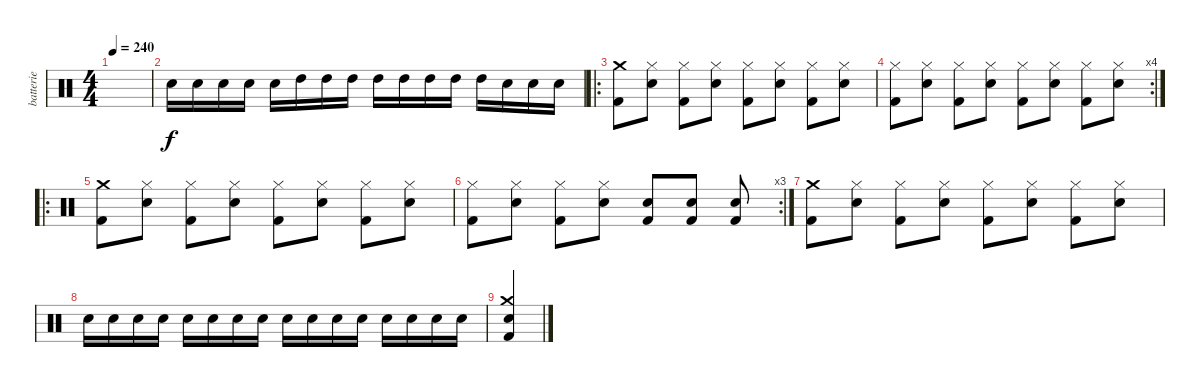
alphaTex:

\track ("batterie" "batterie") {instrument percussion}
\staff {score}
\articulation defaults
\ts (4 4)
\tempo 240
\clef neutral
\ks c
|
"Snare (hit) 2".16 "Snare (hit) 2".16 "Snare (hit) 2".16 "Snare (hit) 2".16 "Snare (hit) 2".16 "High Tom (hit)".16 "High Tom (hit)".16 "High Tom (hit)".16 "High Tom (hit)".16 "High Tom (hit)".16 "High Tom (hit)".16 "High Tom (hit)".16 "High Tom (hit)".16 "Snare (hit) 2".16 "Snare (hit) 2".16 "Snare (hit) 2".16 |
\ro
("Crash medium (hit)" "Kick (hit) 2").8 ("Hi-Hat (closed)" "Snare (hit) 2").8 ("Hi-Hat (closed)" "Kick (hit) 2").8 ("Hi-Hat (closed)" "Snare (hit) 2").8 ("Hi-Hat (closed)" "Kick (hit) 2").8 ("Hi-Hat (closed)" "Snare (hit) 2").8 ("Hi-Hat (closed)" "Kick (hit) 2").8 ("Hi-Hat (closed)" "Snare (hit) 2").8 |
\rc 4
("Hi-Hat (closed)" "Kick (hit) 2").8 ("Hi-Hat (closed)" "Snare (hit) 2").8 ("Hi-Hat (closed)" "Kick (hit) 2").8 ("Hi-Hat (closed)" "Snare (hit) 2").8 ("Hi-Hat (closed)" "Kick (hit) 2").8 ("Hi-Hat (closed)" "Snare (hit) 2").8 ("Hi-Hat (closed)" "Kick (hit) 2").8 ("Hi-Hat (closed)" "Snare (hit) 2").8 |
\ro
("Crash medium (hit)" "Kick (hit) 2").8 ("Hi-Hat (closed)" "Snare (hit) 2").8 ("Hi-Hat (closed)" "Kick (hit) 2").8 ("Hi-Hat (closed)" "Snare (hit) 2").8 ("Hi-Hat (closed)" "Kick (hit) 2").8 ("Hi-Hat (closed)" "Snare (hit) 2").8 ("Hi-Hat (closed)" "Kick (hit) 2").8 ("Hi-Hat (closed)" "Snare (hit) 2").8 |
\rc 3
("Hi-Hat (closed)" "Kick (hit) 2").8 ("Hi-Hat (closed)" "Snare (hit) 2").8 ("Hi-Hat (closed)" "Kick (hit) 2").8 ("Hi-Hat (closed)" "Snare (hit) 2").8 ("Snare (hit) 2" "Kick (hit) 2").8 ("Snare (hit) 2" "Kick (hit) 2").8 ("Snare (hit) 2" "Kick (hit) 2").8 |
("Crash medium (hit)" "Kick (hit) 2").8 ("Hi-Hat (closed)" "Snare (hit) 2").8 ("Hi-Hat (closed)" "Kick (hit) 2").8 ("Hi-Hat (closed)" "Snare (hit) 2").8 ("Hi-Hat (closed)" "Kick (hit) 2").8 ("Hi-Hat (closed)" "Snare (hit) 2").8 ("Hi-Hat (closed)" "Kick (hit) 2").8 ("Hi-Hat (closed)" "Snare (hit) 2").8 |
"Snare (hit) 2".16 "Snare (hit) 2".16 "Snare (hit) 2".16 "Snare (hit) 2".16 "Snare (hit) 2".16 "Snare (hit) 2".16 "Snare (hit) 2".16 "Snare (hit) 2".16 "Snare (hit) 2".16 "Snare (hit) 2".16 "Snare (hit) 2".16 "Snare (hit) 2".16 "Snare (hit) 2".16 "Snare (hit) 2".16 "Snare (hit) 2".16 "Snare (hit) 2".16 |
("Crash medium (hit)" "Snare (hit) 2" "Kick (hit) 2").4
